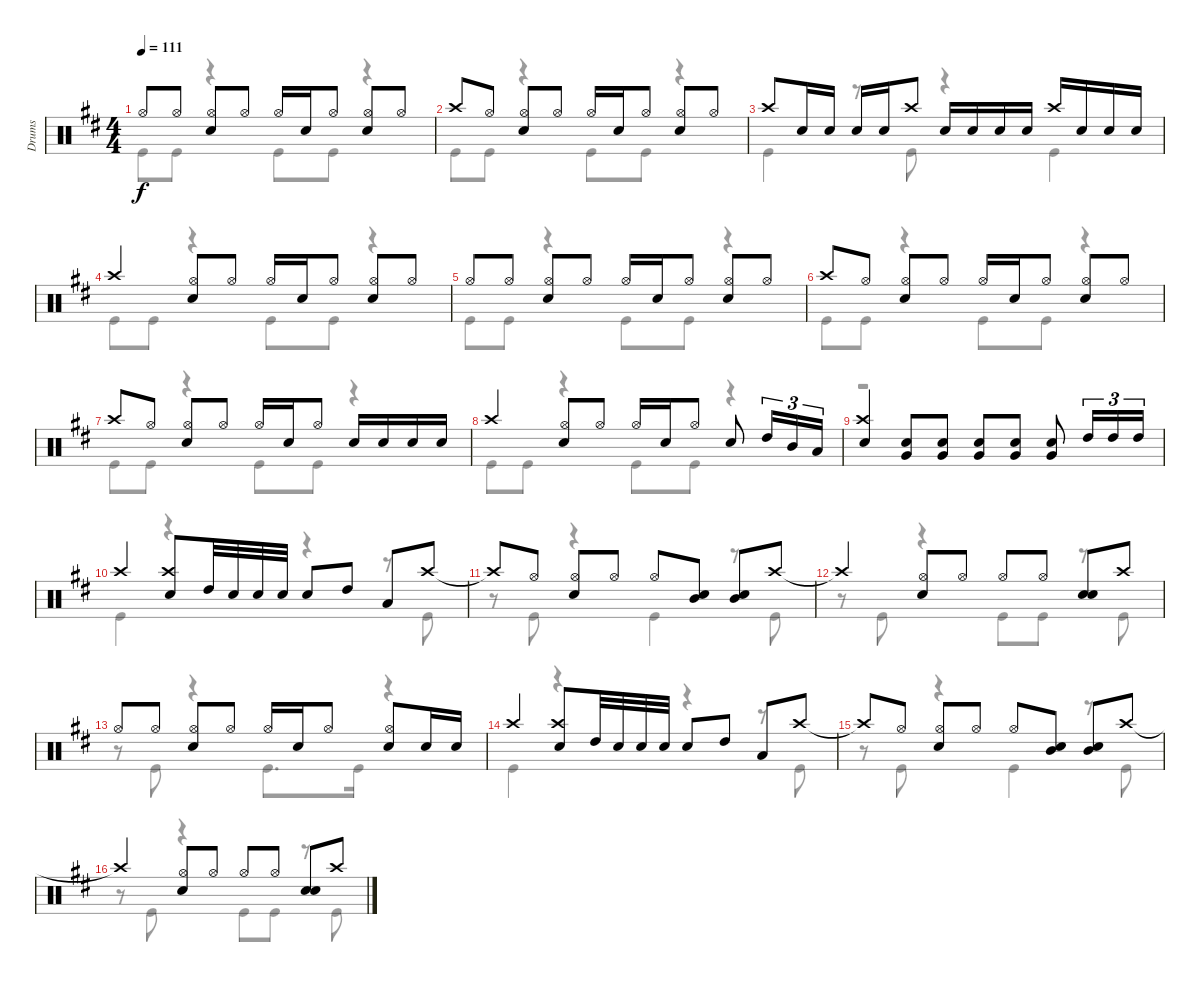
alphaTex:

\track ("Drums" "Drums") {instrument percussion}
\staff {score}
\articulation defaults
\voice
\ts (4 4)
\tempo 111
\clef neutral
\ks d "Hi-Hat (open)".8{dy f beam Up} "Hi-Hat (open)".8{beam Up}
("Snare (hit) 2" "Hi-Hat (open)").8{beam Up} "Hi-Hat (open)".8{beam Up} "Hi-Hat (open)".16{beam Up} "Snare (hit) 2".16{beam Up} "Hi-Hat (open)".8{beam Up} ("Hi-Hat (open)" "Snare (hit) 2").8{beam Up} "Hi-Hat (open)".8{beam Up} |
"Crash high (hit)".8{beam Up} "Hi-Hat (open)".8{beam Up} ("Snare (hit) 2" "Hi-Hat (open)").8{beam Up} "Hi-Hat (open)".8{beam Up} "Hi-Hat (open)".16{beam Up} "Snare (hit) 2".16{beam Up} "Hi-Hat (open)".8{beam Up} ("Hi-Hat (open)" "Snare (hit) 2").8{beam Up} "Hi-Hat (open)".8{beam Up} |
"Crash high (hit)".8{beam Up} "Snare (hit) 2".16{beam Up} "Snare (hit) 2".16{beam Up} "Snare (hit) 2".16{beam Up} "Snare (hit) 2".16{beam Up} "Crash high (hit)".8{beam Up} "Snare (hit) 2".16{beam Up} "Snare (hit) 2".16{beam Up} "Snare (hit) 2".16{beam Up} "Snare (hit) 2".16{beam Up} "Crash high (hit)".16{beam Up} "Snare (hit) 2".16{beam Up} "Snare (hit) 2".16{beam Up} "Snare (hit) 2".16{beam Up} |
"Crash high (hit)".4{beam Up} ("Snare (hit) 2" "Hi-Hat (open)").8{beam Up} "Hi-Hat (open)".8{beam Up} "Hi-Hat (open)".16{beam Up} "Snare (hit) 2".16{beam Up} "Hi-Hat (open)".8{beam Up} ("Hi-Hat (open)" "Snare (hit) 2").8{beam Up} "Hi-Hat (open)".8{beam Up} |
"Hi-Hat (open)".8{beam Up} "Hi-Hat (open)".8{beam Up} ("Snare (hit) 2" "Hi-Hat (open)").8{beam Up} "Hi-Hat (open)".8{beam Up} "Hi-Hat (open)".16{beam Up} "Snare (hit) 2".16{beam Up} "Hi-Hat (open)".8{beam Up} ("Hi-Hat (open)" "Snare (hit) 2").8{beam Up} "Hi-Hat (open)".8{beam Up} |
"Crash high (hit)".8{beam Up} "Hi-Hat (open)".8{beam Up} ("Snare (hit) 2" "Hi-Hat (open)").8{beam Up} "Hi-Hat (open)".8{beam Up} "Hi-Hat (open)".16{beam Up} "Snare (hit) 2".16{beam Up} "Hi-Hat (open)".8{beam Up} ("Hi-Hat (open)" "Snare (hit) 2").8{beam Up} "Hi-Hat (open)".8{beam Up} |
"Crash high (hit)".8{beam Up} "Hi-Hat (open)".8{beam Up} ("Snare (hit) 2" "Hi-Hat (open)").8{beam Up} "Hi-Hat (open)".8{beam Up} "Hi-Hat (open)".16{beam Up} "Snare (hit) 2".16{beam Up} "Hi-Hat (open)".8{beam Up} "Snare (hit) 2".16{beam Up} "Snare (hit) 2".16{beam Up} "Snare (hit) 2".16{beam Up} "Snare (hit) 2".16{beam Up} |
"Crash high (hit)".4{beam Up} ("Snare (hit) 2" "Hi-Hat (open)").8{beam Up} "Hi-Hat (open)".8{beam Up} "Hi-Hat (open)".16{beam Up} "Snare (hit) 2".16{beam Up} "Hi-Hat (open)".8{beam Up} "Snare (hit) 2".8{beam Up} "High Tom (hit)".16{tu (3 2) beam Up} "Mid Tom (hit)".16{tu (3 2) beam Up} "Low Tom (hit)".16{tu (3 2) beam Up} |
("Snare (hit) 2" "Crash high (hit)").4{beam Up} ("Snare (hit) 2" "Very Low Tom (hit)").8{beam Up} ("Snare (hit) 2" "Very Low Tom (hit)").8{beam Up} ("Snare (hit) 2" "Very Low Tom (hit)").8{beam Up} ("Snare (hit) 2" "Very Low Tom (hit)").8{beam Up} ("Snare (hit) 2" "Very Low Tom (hit)").8{beam Up} "High Tom (hit)".16{tu (3 2) beam Up} "High Tom (hit)".16{tu (3 2) beam Up} "High Tom (hit)".16{tu (3 2) beam Up} |
"Crash high (hit)".4{beam Up} ("Crash high (hit)" "Snare (hit) 2").8{beam Up} "High Tom (hit)".32{beam Up} "Snare (hit) 2".32{beam Up} "Snare (hit) 2".32{beam Up} "Snare (hit) 2".32{beam Up} "Snare (hit) 2".8{beam Up} "High Tom (hit)".8{beam Up} "Low Tom (hit)".8{beam Up} "Crash high (hit)".8{beam Up} |
"Crash high (hit)"{t}.8{beam Up} "Hi-Hat (open)".8{beam Up} ("Hi-Hat (open)" "Snare (hit) 2").8{beam Up} "Hi-Hat (open)".8{beam Up} "Hi-Hat (open)".8{beam Up} ("Snare (hit) 2" "Mid Tom (hit)").8{beam Up} ("Mid Tom (hit)" "Snare (hit) 2").8{beam Up} "Crash high (hit)".8{beam Up} |
"Crash high (hit)"{t}.4{beam Up} ("Hi-Hat (open)" "Snare (hit) 2").8{beam Up} "Hi-Hat (open)".8{beam Up} "Hi-Hat (open)".8{beam Up} "Hi-Hat (open)".8{beam Up} ("Snare (hit) 2" "Snare (hit) 2").8{beam Up} "Crash high (hit)".8{beam Up} |
"Hi-Hat (open)".8{beam Up} "Hi-Hat (open)".8{beam Up} ("Snare (hit) 2" "Hi-Hat (open)").8{beam Up} "Hi-Hat (open)".8{beam Up} "Hi-Hat (open)".16{beam Up} "Snare (hit) 2".16{beam Up} "Hi-Hat (open)".8{beam Up} ("Hi-Hat (open)" "Snare (hit) 2").8{beam Up} "Snare (hit) 2".16{beam Up} "Snare (hit) 2".16{beam Up} |
"Crash high (hit)".4{beam Up} ("Crash high (hit)" "Snare (hit) 2").8{beam Up} "High Tom (hit)".32{beam Up} "Snare (hit) 2".32{beam Up} "Snare (hit) 2".32{beam Up} "Snare (hit) 2".32{beam Up} "Snare (hit) 2".8{beam Up} "High Tom (hit)".8{beam Up} "Low Tom (hit)".8{beam Up} "Crash high (hit)".8{beam Up} |
"Crash high (hit)"{t}.8{beam Up} "Hi-Hat (open)".8{beam Up} ("Hi-Hat (open)" "Snare (hit) 2").8{beam Up} "Hi-Hat (open)".8{beam Up} "Hi-Hat (open)".8{beam Up} ("Snare (hit) 2" "Mid Tom (hit)").8{beam Up} ("Mid Tom (hit)" "Snare (hit) 2").8{beam Up} "Crash high (hit)".8{beam Up} |
"Crash high (hit)"{t}.4{beam Up} ("Hi-Hat (open)" "Snare (hit) 2").8{beam Up} "Hi-Hat (open)".8{beam Up} "Hi-Hat (open)".8{beam Up} "Hi-Hat (open)".8{beam Up} ("Snare (hit) 2" "Snare (hit) 2").8{beam Up} "Crash high (hit)".8{beam Up}
\voice
\clef neutral
\ottava regular
\simile none
\ks d "Kick (hit)".8{dy f} "Kick (hit)".8
r.4 "Kick (hit)".8 "Kick (hit)".8 r.4 |
"Kick (hit)".8 "Kick (hit)".8 r.4 "Kick (hit)".8 "Kick (hit)".8 r.4 |
"Kick (hit)".4 r.8 "Kick (hit)".8 r.4 "Kick (hit)".4 |
"Kick (hit)".8 "Kick (hit)".8 r.4 "Kick (hit)".8 "Kick (hit)".8 r.4 |
"Kick (hit)".8 "Kick (hit)".8 r.4 "Kick (hit)".8 "Kick (hit)".8 r.4 |
"Kick (hit)".8 "Kick (hit)".8 r.4 "Kick (hit)".8 "Kick (hit)".8 r.4 |
"Kick (hit)".8 "Kick (hit)".8 r.4 "Kick (hit)".8 "Kick (hit)".8 r.4 |
"Kick (hit)".8 "Kick (hit)".8 r.4 "Kick (hit)".8 "Kick (hit)".8 r.4 |
r.1 |
"Kick (hit)".4 r.4 r.4 r.8 "Kick (hit)".8 |
r.8 "Kick (hit)".8 r.4 "Kick (hit)".4 r.8 "Kick (hit)".8 |
r.8 "Kick (hit)".8 r.4 "Kick (hit)".8 "Kick (hit)".8 r.8 "Kick (hit)".8 |
r.8 "Kick (hit)".8 r.4 "Kick (hit)".8{d} "Kick (hit)".16 r.4 |
"Kick (hit)".4 r.4 r.4 r.8 "Kick (hit)".8 |
r.8 "Kick (hit)".8 r.4 "Kick (hit)".4 r.8 "Kick (hit)".8 |
r.8 "Kick (hit)".8 r.4 "Kick (hit)".8 "Kick (hit)".8 r.8 "Kick (hit)".8
